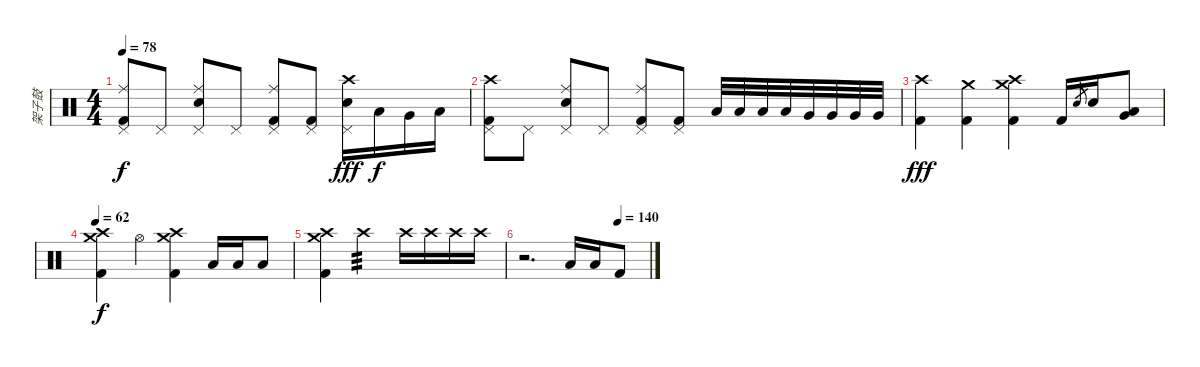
\track ("架子鼓" "架子鼓") {instrument percussion}
\staff {score}
\articulation defaults
\ts (4 4)
\tempo 78
\clef neutral
\ks c
("Ride (middle)" "Pedal Hi-Hat (hit)" "Kick (hit) 2").8{dy f} "Pedal Hi-Hat (hit)".8 ("Ride (middle)" "Pedal Hi-Hat (hit)" "Electric Snare (hit)").8 "Pedal Hi-Hat (hit)".8 ("Ride (middle)" "Pedal Hi-Hat (hit)" "Kick (hit) 2").8 ("Pedal Hi-Hat (hit)" "Kick (hit) 2").8 ("Crash high (hit)" "Pedal Hi-Hat (hit)" "Electric Snare (hit)").16{dy fff} "Low Tom (hit)".16{dy f} "Very Low Tom (hit)".16 "Low Floor Tom (hit)".16 |
("Crash high (hit)" "Pedal Hi-Hat (hit)" "Kick (hit) 2").8 "Pedal Hi-Hat (hit)".8 ("Ride (middle)" "Pedal Hi-Hat (hit)" "Electric Snare (hit)").8 "Pedal Hi-Hat (hit)".8 ("Ride (middle)" "Pedal Hi-Hat (hit)" "Kick (hit) 2").8 ("Pedal Hi-Hat (hit)" "Kick (hit) 2").8 "Low Tom (hit)".32 "Low Tom (hit)".32 "Low Tom (hit)".32 "Low Tom (hit)".32 "Very Low Tom (hit)".32 "Very Low Tom (hit)".32 "Very Low Tom (hit)".32 "Very Low Tom (hit)".32 |
("Crash high (hit)" "Kick (hit) 2").4{dy fff} ("Crash medium (hit)" "Kick (hit) 2").4 ("Crash high (hit)" "Crash medium (hit)" "Kick (hit) 2").4 "Kick (hit) 2".16 "Electric Snare (hit)".8{gr} "Electric Snare (hit)".16 ("Low Tom (hit)" "Very Low Tom (hit)").8 |
\tempo 62
("Crash high (hit)" "Crash medium (hit)" "Kick (hit) 2").4{dy f} "Hi-Hat (open)".4 ("Crash high (hit)" "Crash medium (hit)" "Kick (hit) 2").4 "Low Tom (hit)".16 "Low Tom (hit)".16 "Low Floor Tom (hit)".8 |
("Crash high (hit)" "Crash medium (hit)" "Kick (hit) 2").4 "Crash high (hit)".2{tp 3} "Crash high (hit)".16 "Crash high (hit)".16 "Crash high (hit)".16 "Crash high (hit)".16 |
\tempo (140 0.75)
r.2{d} "Low Floor Tom (hit)".16 "Low Floor Tom (hit)".16 "Kick (hit) 2".8
